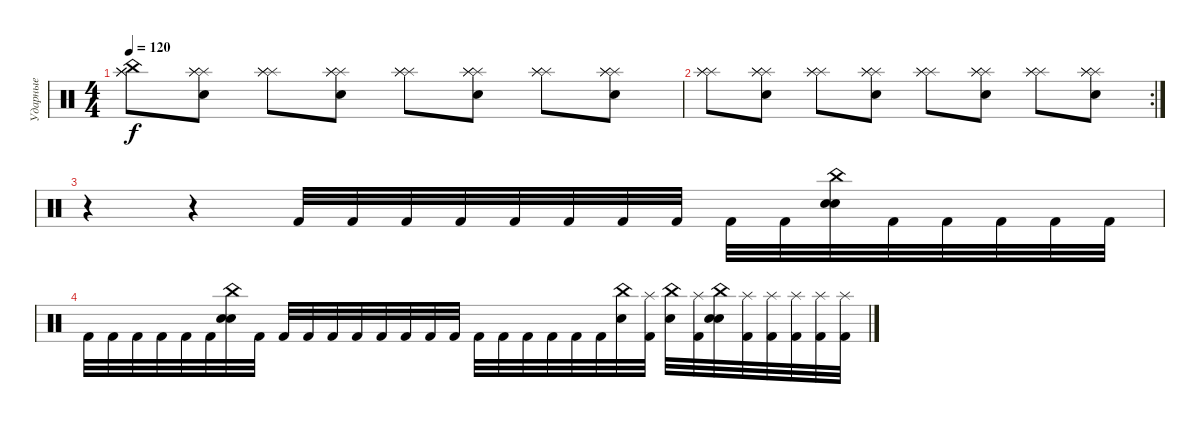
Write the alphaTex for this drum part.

\track ("Ударные" "Ударные") {instrument percussion}
\staff {score}
\articulation defaults
\ts (4 4)
\tempo 120
\clef neutral
\ks c
("Splash (hit)" "Splash (hit)" "Splash (hit)" "China (hit)").8{dy f} ("Snare (hit) 2" "Splash (hit)" "Splash (hit)" "Splash (hit)").8 ("Splash (hit)" "Splash (hit)" "Splash (hit)").8 ("Snare (hit) 2" "Splash (hit)" "Splash (hit)" "Splash (hit)").8 ("Splash (hit)" "Splash (hit)" "Splash (hit)").8 ("Snare (hit) 2" "Splash (hit)" "Splash (hit)" "Splash (hit)").8 ("Splash (hit)" "Splash (hit)" "Splash (hit)").8 ("Snare (hit) 2" "Splash (hit)" "Splash (hit)" "Splash (hit)").8 |
\rc 2
("Splash (hit)" "Splash (hit)" "Splash (hit)").8 ("Snare (hit) 2" "Splash (hit)" "Splash (hit)" "Splash (hit)").8 ("Splash (hit)" "Splash (hit)" "Splash (hit)").8 ("Snare (hit) 2" "Splash (hit)" "Splash (hit)" "Splash (hit)").8 ("Splash (hit)" "Splash (hit)" "Splash (hit)").8 ("Snare (hit) 2" "Splash (hit)" "Splash (hit)" "Splash (hit)").8 ("Splash (hit)" "Splash (hit)" "Splash (hit)").8 ("Snare (hit) 2" "Splash (hit)" "Splash (hit)" "Splash (hit)").8 |
r.4 r.4 "Kick (hit) 2".32 "Kick (hit) 2".32 "Kick (hit) 2".32 "Kick (hit) 2".32 "Kick (hit) 2".32 "Kick (hit) 2".32 "Kick (hit) 2".32 "Kick (hit) 2".32 "Kick (hit) 2".32 "Kick (hit) 2".32 ("China (hit)" "Snare (hit) 2" "Electric Snare (hit)").32 "Kick (hit) 2".32 "Kick (hit) 2".32 "Kick (hit) 2".32 "Kick (hit) 2".32 "Kick (hit) 2".32 |
"Kick (hit) 2".32 "Kick (hit) 2".32 "Kick (hit) 2".32 "Kick (hit) 2".32 "Kick (hit) 2".32 "Kick (hit) 2".32 ("China (hit)" "Snare (hit) 2" "Electric Snare (hit)").32 "Kick (hit) 2".32 "Kick (hit) 2".32 "Kick (hit) 2".32 "Kick (hit) 2".32 "Kick (hit) 2".32 "Kick (hit) 2".32 "Kick (hit) 2".32 "Kick (hit) 2".32 "Kick (hit) 2".32 "Kick (hit) 2".32 "Kick (hit) 2".32 "Kick (hit) 2".32 "Kick (hit) 2".32 "Kick (hit) 2".32 "Kick (hit) 2".32 ("China (hit)" "Snare (hit) 2").32 ("Splash (hit)" "Kick (hit) 2").32 ("China (hit)" "Snare (hit) 2").32 ("Splash (hit)" "Kick (hit) 2").32 ("China (hit)" "Snare (hit) 2" "Electric Snare (hit)").32 ("Splash (hit)" "Kick (hit) 2").32 ("Splash (hit)" "Kick (hit) 2").32 ("Splash (hit)" "Kick (hit) 2").32 ("Splash (hit)" "Kick (hit) 2").32 ("Splash (hit)" "Kick (hit) 2").32
